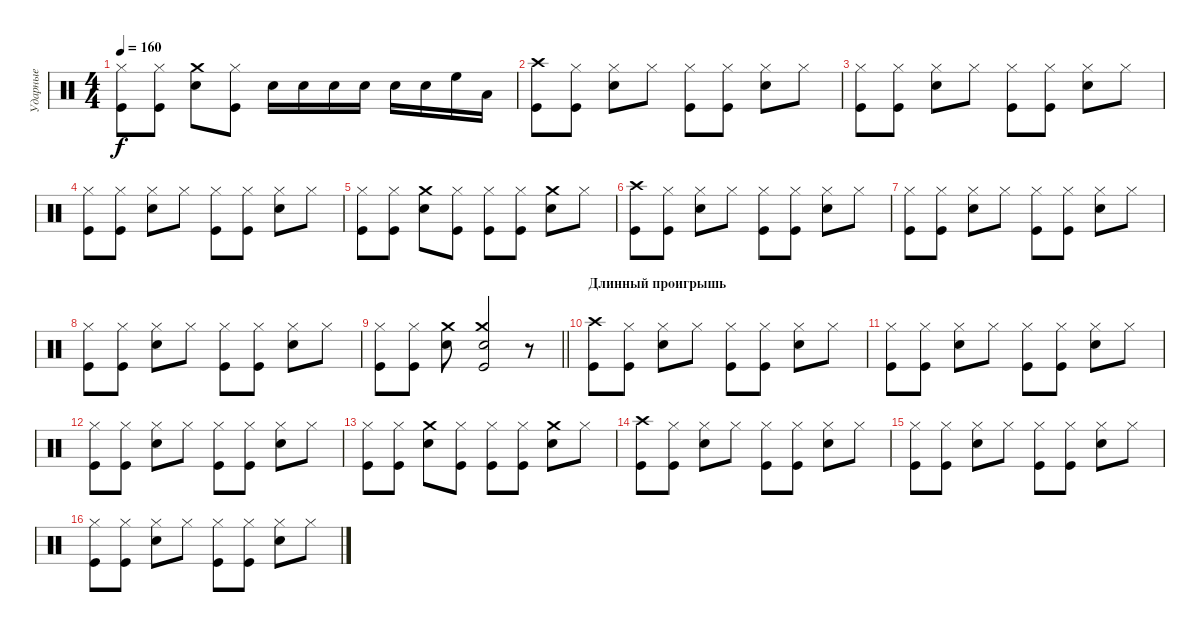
\track ("Ударные" "Ударные") {instrument percussion}
\staff {score}
\articulation defaults
\ts (4 4)
\tempo 160
\clef neutral
\ks c
("Hi-Hat (closed)" "Kick (hit)").8{dy f} ("Hi-Hat (closed)" "Kick (hit)").8 ("Crash medium (hit)" "Snare (hit) 2").8 ("Hi-Hat (closed)" "Kick (hit)").8 "Snare (hit) 2".16 "Snare (hit) 2".16 "Snare (hit) 2".16 "Snare (hit) 2".16 "Snare (hit) 2".16 "Snare (hit) 2".16 "High Floor Tom (hit)".16 "Low Tom (hit)".16 |
("Crash high (hit)" "Kick (hit)").8 ("Hi-Hat (closed)" "Kick (hit)").8 ("Hi-Hat (closed)" "Snare (hit) 2").8 "Hi-Hat (closed)".8 ("Hi-Hat (closed)" "Kick (hit)").8 ("Hi-Hat (closed)" "Kick (hit)").8 ("Hi-Hat (closed)" "Snare (hit) 2").8 "Hi-Hat (closed)".8 |
("Hi-Hat (closed)" "Kick (hit)").8 ("Hi-Hat (closed)" "Kick (hit)").8 ("Hi-Hat (closed)" "Snare (hit) 2").8 "Hi-Hat (closed)".8 ("Hi-Hat (closed)" "Kick (hit)").8 ("Hi-Hat (closed)" "Kick (hit)").8 ("Hi-Hat (closed)" "Snare (hit) 2").8 "Hi-Hat (closed)".8 |
("Hi-Hat (closed)" "Kick (hit)").8 ("Hi-Hat (closed)" "Kick (hit)").8 ("Hi-Hat (closed)" "Snare (hit) 2").8 "Hi-Hat (closed)".8 ("Hi-Hat (closed)" "Kick (hit)").8 ("Hi-Hat (closed)" "Kick (hit)").8 ("Hi-Hat (closed)" "Snare (hit) 2").8 "Hi-Hat (closed)".8 |
("Hi-Hat (closed)" "Kick (hit)").8 ("Hi-Hat (closed)" "Kick (hit)").8 ("Crash medium (hit)" "Snare (hit) 2").8 ("Hi-Hat (closed)" "Kick (hit)").8 ("Hi-Hat (closed)" "Kick (hit)").8 ("Hi-Hat (closed)" "Kick (hit)").8 ("Crash medium (hit)" "Snare (hit) 2").8 "Hi-Hat (closed)".8 |
("Crash high (hit)" "Kick (hit)").8 ("Hi-Hat (closed)" "Kick (hit)").8 ("Hi-Hat (closed)" "Snare (hit) 2").8 "Hi-Hat (closed)".8 ("Hi-Hat (closed)" "Kick (hit)").8 ("Hi-Hat (closed)" "Kick (hit)").8 ("Hi-Hat (closed)" "Snare (hit) 2").8 "Hi-Hat (closed)".8 |
("Hi-Hat (closed)" "Kick (hit)").8 ("Hi-Hat (closed)" "Kick (hit)").8 ("Hi-Hat (closed)" "Snare (hit) 2").8 "Hi-Hat (closed)".8 ("Hi-Hat (closed)" "Kick (hit)").8 ("Hi-Hat (closed)" "Kick (hit)").8 ("Hi-Hat (closed)" "Snare (hit) 2").8 "Hi-Hat (closed)".8 |
("Hi-Hat (closed)" "Kick (hit)").8 ("Hi-Hat (closed)" "Kick (hit)").8 ("Hi-Hat (closed)" "Snare (hit) 2").8 "Hi-Hat (closed)".8 ("Hi-Hat (closed)" "Kick (hit)").8 ("Hi-Hat (closed)" "Kick (hit)").8 ("Hi-Hat (closed)" "Snare (hit) 2").8 "Hi-Hat (closed)".8 |
\barLineRight lightlight
("Hi-Hat (closed)" "Kick (hit)").8 ("Hi-Hat (closed)" "Kick (hit)").8 ("Crash medium (hit)" "Snare (hit) 2").8 ("Kick (hit)" "Snare (hit) 2" "Crash medium (hit)").2 r.8 |
\section ("" "Длинный проигрышь")
("Crash high (hit)" "Kick (hit)").8 ("Hi-Hat (closed)" "Kick (hit)").8 ("Hi-Hat (closed)" "Snare (hit) 2").8 "Hi-Hat (closed)".8 ("Hi-Hat (closed)" "Kick (hit)").8 ("Hi-Hat (closed)" "Kick (hit)").8 ("Hi-Hat (closed)" "Snare (hit) 2").8 "Hi-Hat (closed)".8 |
("Hi-Hat (closed)" "Kick (hit)").8 ("Hi-Hat (closed)" "Kick (hit)").8 ("Hi-Hat (closed)" "Snare (hit) 2").8 "Hi-Hat (closed)".8 ("Hi-Hat (closed)" "Kick (hit)").8 ("Hi-Hat (closed)" "Kick (hit)").8 ("Hi-Hat (closed)" "Snare (hit) 2").8 "Hi-Hat (closed)".8 |
("Hi-Hat (closed)" "Kick (hit)").8 ("Hi-Hat (closed)" "Kick (hit)").8 ("Hi-Hat (closed)" "Snare (hit) 2").8 "Hi-Hat (closed)".8 ("Hi-Hat (closed)" "Kick (hit)").8 ("Hi-Hat (closed)" "Kick (hit)").8 ("Hi-Hat (closed)" "Snare (hit) 2").8 "Hi-Hat (closed)".8 |
("Hi-Hat (closed)" "Kick (hit)").8 ("Hi-Hat (closed)" "Kick (hit)").8 ("Crash medium (hit)" "Snare (hit) 2").8 ("Hi-Hat (closed)" "Kick (hit)").8 ("Hi-Hat (closed)" "Kick (hit)").8 ("Hi-Hat (closed)" "Kick (hit)").8 ("Crash medium (hit)" "Snare (hit) 2").8 "Hi-Hat (closed)".8 |
("Crash high (hit)" "Kick (hit)").8 ("Hi-Hat (closed)" "Kick (hit)").8 ("Hi-Hat (closed)" "Snare (hit) 2").8 "Hi-Hat (closed)".8 ("Hi-Hat (closed)" "Kick (hit)").8 ("Hi-Hat (closed)" "Kick (hit)").8 ("Hi-Hat (closed)" "Snare (hit) 2").8 "Hi-Hat (closed)".8 |
("Hi-Hat (closed)" "Kick (hit)").8 ("Hi-Hat (closed)" "Kick (hit)").8 ("Hi-Hat (closed)" "Snare (hit) 2").8 "Hi-Hat (closed)".8 ("Hi-Hat (closed)" "Kick (hit)").8 ("Hi-Hat (closed)" "Kick (hit)").8 ("Hi-Hat (closed)" "Snare (hit) 2").8 "Hi-Hat (closed)".8 |
("Hi-Hat (closed)" "Kick (hit)").8 ("Hi-Hat (closed)" "Kick (hit)").8 ("Hi-Hat (closed)" "Snare (hit) 2").8 "Hi-Hat (closed)".8 ("Hi-Hat (closed)" "Kick (hit)").8 ("Hi-Hat (closed)" "Kick (hit)").8 ("Hi-Hat (closed)" "Snare (hit) 2").8 "Hi-Hat (closed)".8
